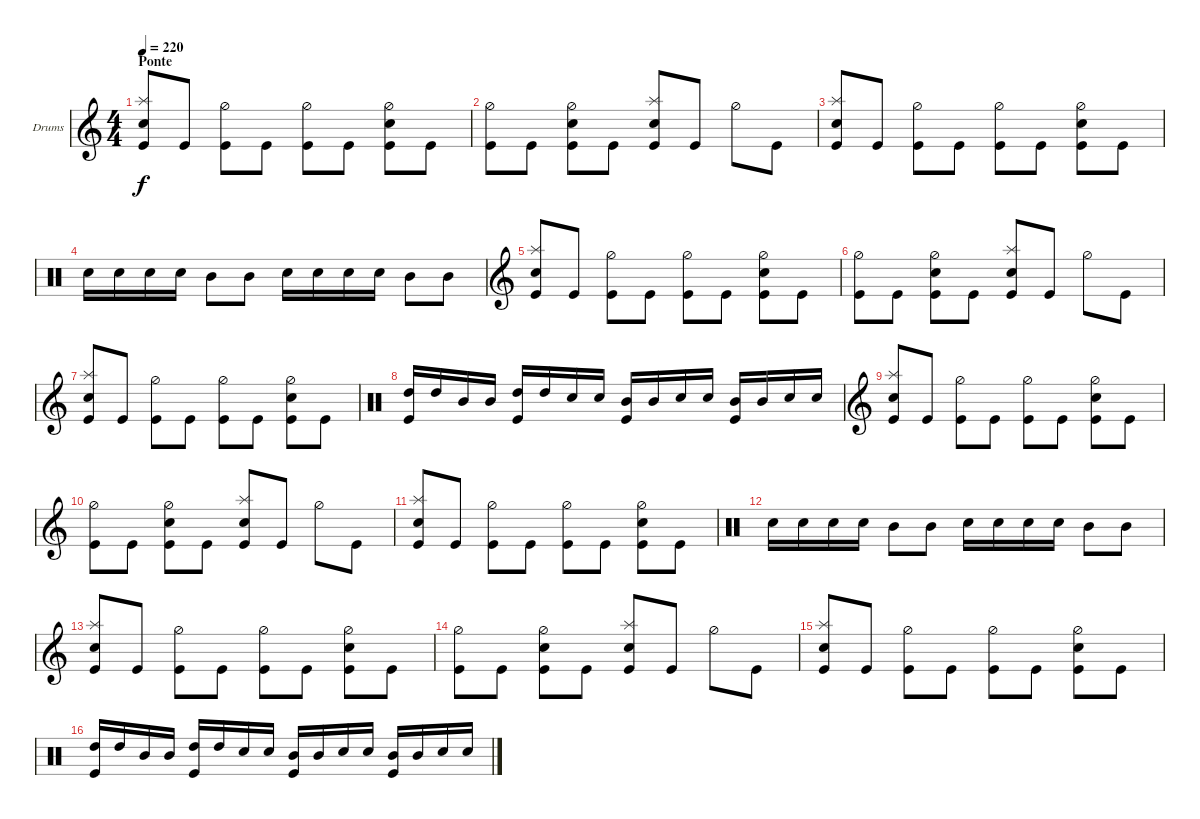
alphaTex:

\defaultSystemsLayout 4
\bracketExtendMode groupsimilarinstruments
\firstSystemTrackNameOrientation horizontal
\otherSystemsTrackNameOrientation horizontal
\track ("Drumkit" "Drums") {instrument percussion}
\staff {score}
\articulation defaults
\ts (4 4)
\section ("" "Ponte")
\tempo 220
\clef g2
\ks c
("Snare (hit) 2" "Splash (hit)" "Kick (hit)").8{dy f} "Kick (hit)".8 ("Hi-Hat (half)" "Kick (hit)").8 "Kick (hit)".8 ("Hi-Hat (half)" "Kick (hit)").8 "Kick (hit)".8 ("Snare (hit) 2" "Hi-Hat (half)" "Kick (hit)").8 "Kick (hit)".8 |
("Hi-Hat (half)" "Kick (hit)").8 "Kick (hit)".8 ("Snare (hit) 2" "Hi-Hat (half)" "Kick (hit)").8 "Kick (hit)".8 ("Snare (hit) 2" "Splash (hit)" "Kick (hit)").8 "Kick (hit)".8 "Hi-Hat (half)".8 "Kick (hit)".8 |
("Snare (hit) 2" "Splash (hit)" "Kick (hit)").8 "Kick (hit)".8 ("Hi-Hat (half)" "Kick (hit)").8 "Kick (hit)".8 ("Hi-Hat (half)" "Kick (hit)").8 "Kick (hit)".8 ("Snare (hit) 2" "Hi-Hat (half)" "Kick (hit)").8 "Kick (hit)".8 |
\clef neutral "Snare (hit) 2".16 "Snare (hit) 2".16 "Snare (hit) 2".16 "Snare (hit) 2".16 "Mid Tom (hit)".8 "Mid Tom (hit)".8 "Snare (hit) 2".16 "Snare (hit) 2".16 "Snare (hit) 2".16 "Snare (hit) 2".16 "Mid Tom (hit)".8 "Mid Tom (hit)".8
|
\clef g2
("Snare (hit) 2" "Splash (hit)" "Kick (hit)").8 "Kick (hit)".8 ("Hi-Hat (half)" "Kick (hit)").8 "Kick (hit)".8 ("Hi-Hat (half)" "Kick (hit)").8 "Kick (hit)".8 ("Snare (hit) 2" "Hi-Hat (half)" "Kick (hit)").8 "Kick (hit)".8 |
("Hi-Hat (half)" "Kick (hit)").8 "Kick (hit)".8 ("Snare (hit) 2" "Hi-Hat (half)" "Kick (hit)").8 "Kick (hit)".8 ("Snare (hit) 2" "Splash (hit)" "Kick (hit)").8 "Kick (hit)".8 "Hi-Hat (half)".8 "Kick (hit)".8 |
("Snare (hit) 2" "Splash (hit)" "Kick (hit)").8 "Kick (hit)".8 ("Hi-Hat (half)" "Kick (hit)").8 "Kick (hit)".8 ("Hi-Hat (half)" "Kick (hit)").8 "Kick (hit)".8 ("Snare (hit) 2" "Hi-Hat (half)" "Kick (hit)").8 "Kick (hit)".8 |
\clef neutral
("High Tom (hit)" "Kick (hit)").16 "High Tom (hit)".16 "Mid Tom (hit)".16 "Mid Tom (hit)".16 ("High Tom (hit)" "Kick (hit)").16 "High Tom (hit)".16 "Snare (hit) 2".16 "Snare (hit) 2".16 ("Mid Tom (hit)" "Kick (hit)").16 "Mid Tom (hit)".16 "Snare (hit) 2".16 "Snare (hit) 2".16 ("Mid Tom (hit)" "Kick (hit)").16 "Mid Tom (hit)".16 "Snare (hit) 2".16 "Snare (hit) 2".16 |
\clef g2
("Snare (hit) 2" "Splash (hit)" "Kick (hit)").8 "Kick (hit)".8 ("Hi-Hat (half)" "Kick (hit)").8 "Kick (hit)".8 ("Hi-Hat (half)" "Kick (hit)").8 "Kick (hit)".8 ("Snare (hit) 2" "Hi-Hat (half)" "Kick (hit)").8 "Kick (hit)".8 |
("Hi-Hat (half)" "Kick (hit)").8 "Kick (hit)".8 ("Snare (hit) 2" "Hi-Hat (half)" "Kick (hit)").8 "Kick (hit)".8 ("Snare (hit) 2" "Splash (hit)" "Kick (hit)").8 "Kick (hit)".8 "Hi-Hat (half)".8 "Kick (hit)".8 |
("Snare (hit) 2" "Splash (hit)" "Kick (hit)").8 "Kick (hit)".8 ("Hi-Hat (half)" "Kick (hit)").8 "Kick (hit)".8 ("Hi-Hat (half)" "Kick (hit)").8 "Kick (hit)".8 ("Snare (hit) 2" "Hi-Hat (half)" "Kick (hit)").8 "Kick (hit)".8 |
\clef neutral "Snare (hit) 2".16 "Snare (hit) 2".16 "Snare (hit) 2".16 "Snare (hit) 2".16 "Mid Tom (hit)".8 "Mid Tom (hit)".8 "Snare (hit) 2".16 "Snare (hit) 2".16 "Snare (hit) 2".16 "Snare (hit) 2".16 "Mid Tom (hit)".8 "Mid Tom (hit)".8
|
\clef g2
("Snare (hit) 2" "Splash (hit)" "Kick (hit)").8 "Kick (hit)".8 ("Hi-Hat (half)" "Kick (hit)").8 "Kick (hit)".8 ("Hi-Hat (half)" "Kick (hit)").8 "Kick (hit)".8 ("Snare (hit) 2" "Hi-Hat (half)" "Kick (hit)").8 "Kick (hit)".8 |
("Hi-Hat (half)" "Kick (hit)").8 "Kick (hit)".8 ("Snare (hit) 2" "Hi-Hat (half)" "Kick (hit)").8 "Kick (hit)".8 ("Snare (hit) 2" "Splash (hit)" "Kick (hit)").8 "Kick (hit)".8 "Hi-Hat (half)".8 "Kick (hit)".8 |
("Snare (hit) 2" "Splash (hit)" "Kick (hit)").8 "Kick (hit)".8 ("Hi-Hat (half)" "Kick (hit)").8 "Kick (hit)".8 ("Hi-Hat (half)" "Kick (hit)").8 "Kick (hit)".8 ("Snare (hit) 2" "Hi-Hat (half)" "Kick (hit)").8 "Kick (hit)".8 |
\clef neutral
("High Tom (hit)" "Kick (hit)").16 "High Tom (hit)".16 "Mid Tom (hit)".16 "Mid Tom (hit)".16 ("High Tom (hit)" "Kick (hit)").16 "High Tom (hit)".16 "Snare (hit) 2".16 "Snare (hit) 2".16 ("Mid Tom (hit)" "Kick (hit)").16 "Mid Tom (hit)".16 "Snare (hit) 2".16 "Snare (hit) 2".16 ("Mid Tom (hit)" "Kick (hit)").16 "Mid Tom (hit)".16 "Snare (hit) 2".16 "Snare (hit) 2".16
